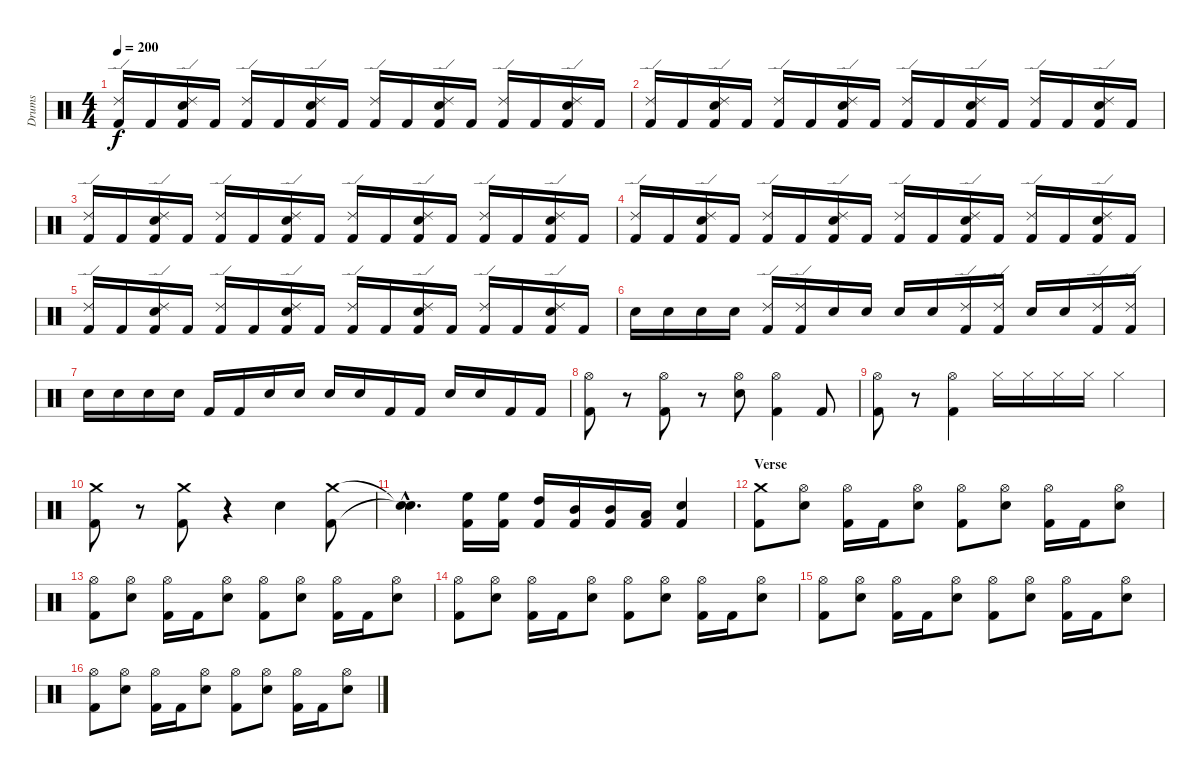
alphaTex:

\track ("Drums" "Drums") {instrument percussion}
\staff {score}
\articulation defaults
\ts (4 4)
\tempo 200
\clef neutral
\ks c
("Kick (hit) 2" "Ride (edge) 2").16{dy f} "Kick (hit) 2".16 ("Kick (hit) 2" "Snare (hit) 2" "Ride (edge) 2").16 "Kick (hit) 2".16 ("Kick (hit) 2" "Ride (edge) 2").16 "Kick (hit) 2".16 ("Kick (hit) 2" "Snare (hit) 2" "Ride (edge) 2").16 "Kick (hit) 2".16 ("Kick (hit) 2" "Ride (edge) 2").16 "Kick (hit) 2".16 ("Kick (hit) 2" "Snare (hit) 2" "Ride (edge) 2").16 "Kick (hit) 2".16 ("Kick (hit) 2" "Ride (edge) 2").16 "Kick (hit) 2".16 ("Kick (hit) 2" "Snare (hit) 2" "Ride (edge) 2").16 "Kick (hit) 2".16 |
("Kick (hit) 2" "Ride (edge) 2").16 "Kick (hit) 2".16 ("Kick (hit) 2" "Snare (hit) 2" "Ride (edge) 2").16 "Kick (hit) 2".16 ("Kick (hit) 2" "Ride (edge) 2").16 "Kick (hit) 2".16 ("Kick (hit) 2" "Snare (hit) 2" "Ride (edge) 2").16 "Kick (hit) 2".16 ("Kick (hit) 2" "Ride (edge) 2").16 "Kick (hit) 2".16 ("Kick (hit) 2" "Snare (hit) 2" "Ride (edge) 2").16 "Kick (hit) 2".16 ("Kick (hit) 2" "Ride (edge) 2").16 "Kick (hit) 2".16 ("Kick (hit) 2" "Snare (hit) 2" "Ride (edge) 2").16 "Kick (hit) 2".16 |
("Kick (hit) 2" "Ride (edge) 2").16 "Kick (hit) 2".16 ("Kick (hit) 2" "Snare (hit) 2" "Ride (edge) 2").16 "Kick (hit) 2".16 ("Kick (hit) 2" "Ride (edge) 2").16 "Kick (hit) 2".16 ("Kick (hit) 2" "Snare (hit) 2" "Ride (edge) 2").16 "Kick (hit) 2".16 ("Kick (hit) 2" "Ride (edge) 2").16 "Kick (hit) 2".16 ("Kick (hit) 2" "Snare (hit) 2" "Ride (edge) 2").16 "Kick (hit) 2".16 ("Kick (hit) 2" "Ride (edge) 2").16 "Kick (hit) 2".16 ("Kick (hit) 2" "Snare (hit) 2" "Ride (edge) 2").16 "Kick (hit) 2".16 |
("Kick (hit) 2" "Ride (edge) 2").16 "Kick (hit) 2".16 ("Kick (hit) 2" "Snare (hit) 2" "Ride (edge) 2").16 "Kick (hit) 2".16 ("Kick (hit) 2" "Ride (edge) 2").16 "Kick (hit) 2".16 ("Kick (hit) 2" "Snare (hit) 2" "Ride (edge) 2").16 "Kick (hit) 2".16 ("Kick (hit) 2" "Ride (edge) 2").16 "Kick (hit) 2".16 ("Kick (hit) 2" "Snare (hit) 2" "Ride (edge) 2").16 "Kick (hit) 2".16 ("Kick (hit) 2" "Ride (edge) 2").16 "Kick (hit) 2".16 ("Kick (hit) 2" "Snare (hit) 2" "Ride (edge) 2").16 "Kick (hit) 2".16 |
("Kick (hit) 2" "Ride (edge) 2").16 "Kick (hit) 2".16 ("Kick (hit) 2" "Snare (hit) 2" "Ride (edge) 2").16 "Kick (hit) 2".16 ("Kick (hit) 2" "Ride (edge) 2").16 "Kick (hit) 2".16 ("Kick (hit) 2" "Snare (hit) 2" "Ride (edge) 2").16 "Kick (hit) 2".16 ("Kick (hit) 2" "Ride (edge) 2").16 "Kick (hit) 2".16 ("Kick (hit) 2" "Snare (hit) 2" "Ride (edge) 2").16 "Kick (hit) 2".16 ("Kick (hit) 2" "Ride (edge) 2").16 "Kick (hit) 2".16 ("Kick (hit) 2" "Snare (hit) 2" "Ride (edge) 2").16 "Kick (hit) 2".16 |
"Snare (hit) 2".16 "Snare (hit) 2".16 "Snare (hit) 2".16 "Snare (hit) 2".16 ("Kick (hit) 2" "Ride (edge) 2").16 ("Kick (hit) 2" "Ride (edge) 2").16 "Snare (hit) 2".16 "Snare (hit) 2".16 "Snare (hit) 2".16 "Snare (hit) 2".16 ("Kick (hit) 2" "Ride (edge) 2").16 ("Kick (hit) 2" "Ride (edge) 2").16 "Snare (hit) 2".16 "Snare (hit) 2".16 ("Kick (hit) 2" "Ride (edge) 2").16 ("Kick (hit) 2" "Ride (edge) 2").16 |
"Snare (hit) 2".16 "Snare (hit) 2".16 "Snare (hit) 2".16 "Snare (hit) 2".16 "Kick (hit) 2".16 "Kick (hit) 2".16 "Snare (hit) 2".16 "Snare (hit) 2".16 "Snare (hit) 2".16 "Snare (hit) 2".16 "Kick (hit) 2".16 "Kick (hit) 2".16 "Snare (hit) 2".16 "Snare (hit) 2".16 "Kick (hit) 2".16 "Kick (hit) 2".16 |
\section ("" "")
("Kick (hit) 2" "Hi-Hat (open)").8 r.8 ("Kick (hit) 2" "Hi-Hat (open)").8 r.8 ("Snare (hit) 2" "Hi-Hat (open)").8 ("Kick (hit) 2" "Hi-Hat (open)").4 "Kick (hit) 2".8 |
("Kick (hit) 2" "Hi-Hat (open)").8 r.8 ("Kick (hit) 2" "Hi-Hat (open)").4 "Hi-Hat (closed)".16 "Hi-Hat (closed)".16 "Hi-Hat (closed)".16 "Hi-Hat (closed)".16 "Hi-Hat (closed)".4 |
("Kick (hit) 2" "Crash medium (hit)").8 r.8 ("Kick (hit) 2" "Crash medium (hit)").8 r.4 "Snare (hit) 2".4 ("Kick (hit) 2" "Crash medium (hit)").8 |
("Snare (hit)"{hac t} "Snare (hit)"{hac t}).4{d} ("Kick (hit) 2" "High Floor Tom (hit)").16 ("Kick (hit) 2" "High Floor Tom (hit)").16 ("Kick (hit) 2" "High Tom (hit)").16 ("Kick (hit) 2" "Mid Tom (hit)").16 ("Kick (hit) 2" "Mid Tom (hit)").16 ("Kick (hit) 2" "Low Tom (hit)").16 ("Kick (hit) 2" "Snare (hit) 2").4 |
\section ("" "Verse")
("Kick (hit) 2" "Crash medium (hit)").8 ("Snare (hit) 2" "Hi-Hat (open)").8 ("Kick (hit) 2" "Hi-Hat (open)").16 "Kick (hit) 2".16 ("Snare (hit) 2" "Hi-Hat (open)").8 ("Kick (hit) 2" "Hi-Hat (open)").8 ("Snare (hit) 2" "Hi-Hat (open)").8 ("Kick (hit) 2" "Hi-Hat (open)").16 "Kick (hit) 2".16 ("Snare (hit) 2" "Hi-Hat (open)").8 |
("Kick (hit) 2" "Hi-Hat (open)").8 ("Snare (hit) 2" "Hi-Hat (open)").8 ("Kick (hit) 2" "Hi-Hat (open)").16 "Kick (hit) 2".16 ("Snare (hit) 2" "Hi-Hat (open)").8 ("Kick (hit) 2" "Hi-Hat (open)").8 ("Snare (hit) 2" "Hi-Hat (open)").8 ("Kick (hit) 2" "Hi-Hat (open)").16 "Kick (hit) 2".16 ("Snare (hit) 2" "Hi-Hat (open)").8 |
("Kick (hit) 2" "Hi-Hat (open)").8 ("Snare (hit) 2" "Hi-Hat (open)").8 ("Kick (hit) 2" "Hi-Hat (open)").16 "Kick (hit) 2".16 ("Snare (hit) 2" "Hi-Hat (open)").8 ("Kick (hit) 2" "Hi-Hat (open)").8 ("Snare (hit) 2" "Hi-Hat (open)").8 ("Kick (hit) 2" "Hi-Hat (open)").16 "Kick (hit) 2".16 ("Snare (hit) 2" "Hi-Hat (open)").8 |
("Kick (hit) 2" "Hi-Hat (open)").8 ("Snare (hit) 2" "Hi-Hat (open)").8 ("Kick (hit) 2" "Hi-Hat (open)").16 "Kick (hit) 2".16 ("Snare (hit) 2" "Hi-Hat (open)").8 ("Kick (hit) 2" "Hi-Hat (open)").8 ("Snare (hit) 2" "Hi-Hat (open)").8 ("Kick (hit) 2" "Hi-Hat (open)").16 "Kick (hit) 2".16 ("Snare (hit) 2" "Hi-Hat (open)").8 |
("Kick (hit) 2" "Hi-Hat (open)").8 ("Snare (hit) 2" "Hi-Hat (open)").8 ("Kick (hit) 2" "Hi-Hat (open)").16 "Kick (hit) 2".16 ("Snare (hit) 2" "Hi-Hat (open)").8 ("Kick (hit) 2" "Hi-Hat (open)").8 ("Snare (hit) 2" "Hi-Hat (open)").8 ("Kick (hit) 2" "Hi-Hat (open)").16 "Kick (hit) 2".16 ("Snare (hit) 2" "Hi-Hat (open)").8
